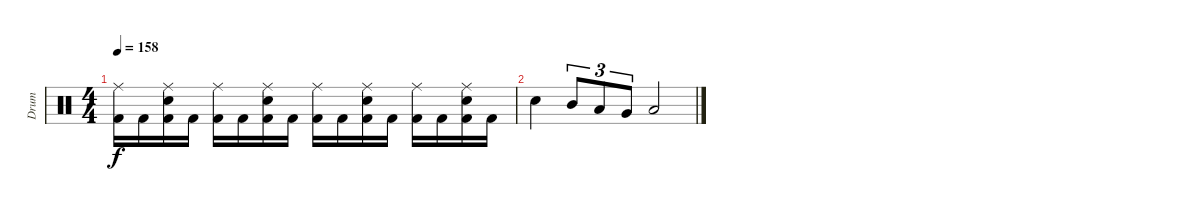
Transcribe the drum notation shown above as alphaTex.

\track ("Drum" "Drum") {instrument percussion}
\staff {score}
\articulation defaults
\ts (4 4)
\tempo 158
\clef neutral
\ks c
("Kick (hit) 2" "Ride (middle)").16{dy f} "Kick (hit) 2".16 ("Electric Snare (hit)" "Kick (hit) 2" "Ride (middle)").16 "Kick (hit) 2".16 ("Kick (hit) 2" "Ride (middle)").16 "Kick (hit) 2".16 ("Electric Snare (hit)" "Kick (hit) 2" "Ride (middle)").16 "Kick (hit) 2".16 ("Kick (hit) 2" "Ride (middle)").16 "Kick (hit) 2".16 ("Electric Snare (hit)" "Kick (hit) 2" "Ride (middle)").16 "Kick (hit) 2".16 ("Kick (hit) 2" "Ride (middle)").16 "Kick (hit) 2".16 ("Electric Snare (hit)" "Kick (hit) 2" "Ride (middle)").16 "Kick (hit) 2".16 |
"Electric Snare (hit)".4 "Mid Tom (hit)".8{tu (3 2)} "Low Tom (hit)".8{tu (3 2)} "Very Low Tom (hit)".8{tu (3 2)} "Low Floor Tom (hit)".2
